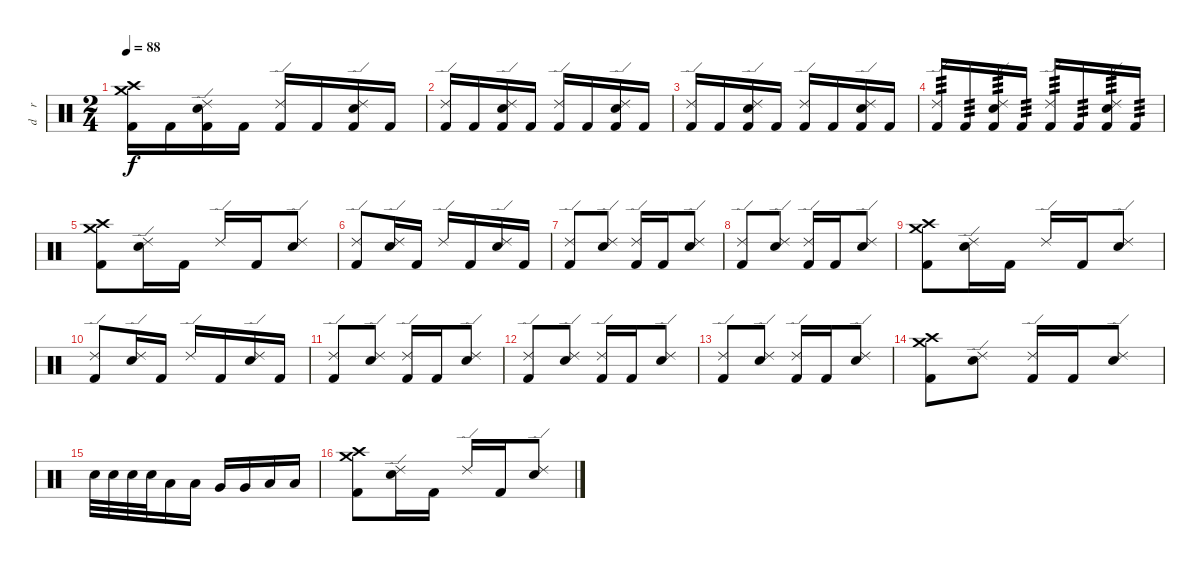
\track ("d    r     u    m    s" "d    r    ") {instrument percussion}
\staff {score}
\articulation defaults
\ts (2 4)
\tempo 88
\clef neutral
\ks c
("Crash high (hit)" "Crash medium (hit)" "Kick (hit) 2").16{dy f} "Kick (hit) 2".16 ("Ride (edge) 2" "Electric Snare (hit)" "Kick (hit) 2").16 "Kick (hit) 2".16 ("Ride (edge) 2" "Kick (hit) 2").16 "Kick (hit) 2".16 ("Ride (edge) 2" "Electric Snare (hit)" "Kick (hit) 2").16 "Kick (hit) 2".16 |
("Ride (edge) 2" "Kick (hit) 2").16 "Kick (hit) 2".16 ("Ride (edge) 2" "Electric Snare (hit)" "Kick (hit) 2").16 "Kick (hit) 2".16 ("Ride (edge) 2" "Kick (hit) 2").16 "Kick (hit) 2".16 ("Ride (edge) 2" "Electric Snare (hit)" "Kick (hit) 2").16 "Kick (hit) 2".16 |
("Ride (edge) 2" "Kick (hit) 2").16 "Kick (hit) 2".16 ("Ride (edge) 2" "Electric Snare (hit)" "Kick (hit) 2").16 "Kick (hit) 2".16 ("Ride (edge) 2" "Kick (hit) 2").16 "Kick (hit) 2".16 ("Ride (edge) 2" "Electric Snare (hit)" "Kick (hit) 2").16 "Kick (hit) 2".16 |
("Ride (edge) 2" "Kick (hit) 2").16{tp 3} "Kick (hit) 2".16{tp 3} ("Ride (edge) 2" "Electric Snare (hit)" "Kick (hit) 2").16{tp 3} "Kick (hit) 2".16{tp 3} ("Ride (edge) 2" "Kick (hit) 2").16{tp 3} "Kick (hit) 2".16{tp 3} ("Ride (edge) 2" "Electric Snare (hit)" "Kick (hit) 2").16{tp 3} "Kick (hit) 2".16{tp 3} |
("Crash high (hit)" "Crash medium (hit)" "Kick (hit) 2").8 ("Ride (edge) 2" "Electric Snare (hit)").16 "Kick (hit) 2".16 "Ride (edge) 2".16 "Kick (hit) 2".16 ("Ride (edge) 2" "Electric Snare (hit)").8 |
("Ride (edge) 2" "Kick (hit) 2").8 ("Ride (edge) 2" "Electric Snare (hit)").16 "Kick (hit) 2".16 "Ride (edge) 2".16 "Kick (hit) 2".16 ("Ride (edge) 2" "Electric Snare (hit)").16 "Kick (hit) 2".16 |
("Ride (edge) 2" "Kick (hit) 2").8 ("Ride (edge) 2" "Electric Snare (hit)").8 ("Ride (edge) 2" "Kick (hit) 2").16 "Kick (hit) 2".16 ("Ride (edge) 2" "Electric Snare (hit)").8 |
("Ride (edge) 2" "Kick (hit) 2").8 ("Ride (edge) 2" "Electric Snare (hit)").8 ("Ride (edge) 2" "Kick (hit) 2").16 "Kick (hit) 2".16 ("Ride (edge) 2" "Electric Snare (hit)").8 |
("Crash high (hit)" "Crash medium (hit)" "Kick (hit) 2").8 ("Ride (edge) 2" "Electric Snare (hit)").16 "Kick (hit) 2".16 "Ride (edge) 2".16 "Kick (hit) 2".16 ("Ride (edge) 2" "Electric Snare (hit)").8 |
("Ride (edge) 2" "Kick (hit) 2").8 ("Ride (edge) 2" "Electric Snare (hit)").16 "Kick (hit) 2".16 "Ride (edge) 2".16 "Kick (hit) 2".16 ("Ride (edge) 2" "Electric Snare (hit)").16 "Kick (hit) 2".16 |
("Ride (edge) 2" "Kick (hit) 2").8 ("Ride (edge) 2" "Electric Snare (hit)").8 ("Ride (edge) 2" "Kick (hit) 2").16 "Kick (hit) 2".16 ("Ride (edge) 2" "Electric Snare (hit)").8 |
("Ride (edge) 2" "Kick (hit) 2").8 ("Ride (edge) 2" "Electric Snare (hit)").8 ("Ride (edge) 2" "Kick (hit) 2").16 "Kick (hit) 2".16 ("Ride (edge) 2" "Electric Snare (hit)").8 |
("Ride (edge) 2" "Kick (hit) 2").8 ("Ride (edge) 2" "Electric Snare (hit)").8 ("Ride (edge) 2" "Kick (hit) 2").16 "Kick (hit) 2".16 ("Ride (edge) 2" "Electric Snare (hit)").8 |
("Crash high (hit)" "Crash medium (hit)" "Kick (hit) 2").8 ("Ride (edge) 2" "Electric Snare (hit)").8 ("Ride (edge) 2" "Kick (hit) 2").16 "Kick (hit) 2".16 ("Ride (edge) 2" "Electric Snare (hit)").8 |
"Electric Snare (hit)".32 "Electric Snare (hit)".32 "Electric Snare (hit)".32 "Electric Snare (hit)".32 "Low Tom (hit)".16 "Low Tom (hit)".16 "Very Low Tom (hit)".16 "Very Low Tom (hit)".16 "Low Floor Tom (hit)".16 "Low Floor Tom (hit)".16 |
("Crash high (hit)" "Crash medium (hit)" "Kick (hit) 2").8 ("Ride (edge) 2" "Electric Snare (hit)").16 "Kick (hit) 2".16 "Ride (edge) 2".16 "Kick (hit) 2".16 ("Ride (edge) 2" "Electric Snare (hit)").8
